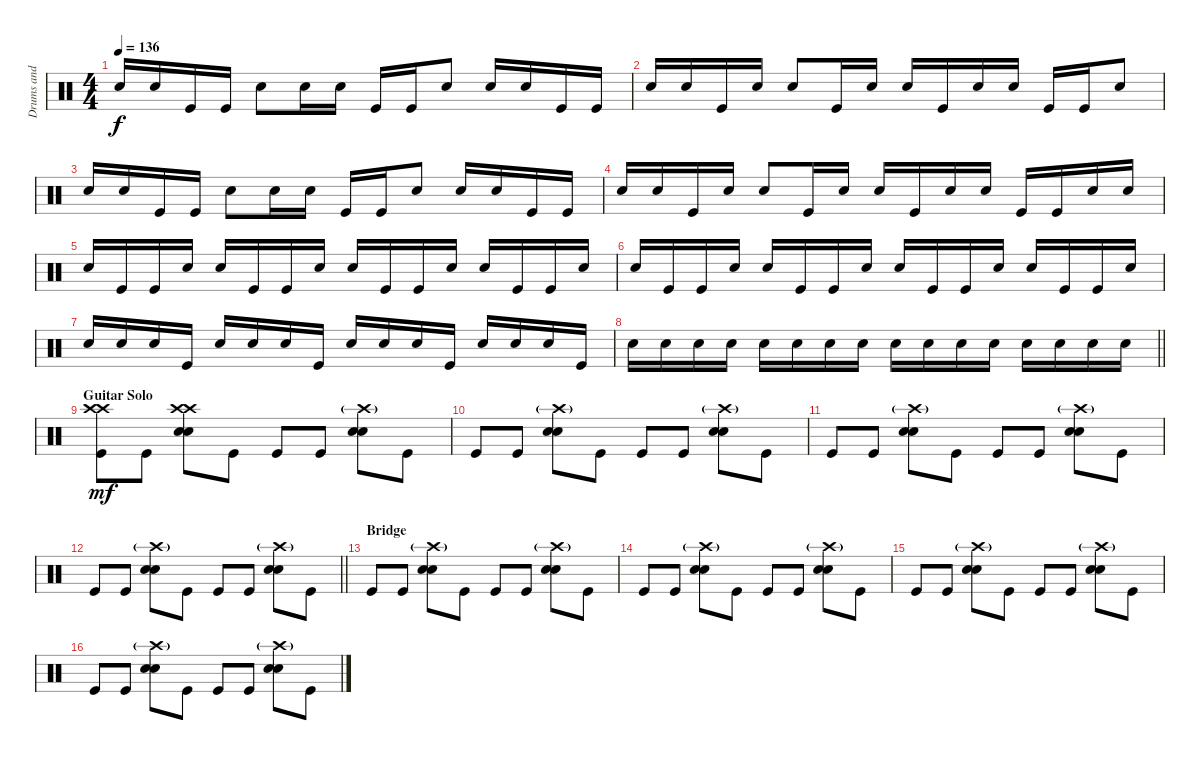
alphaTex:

\track ("Drums and Percussions" "Drums and ") {instrument percussion}
\staff {score}
\articulation defaults
\ts (4 4)
\tempo 136
\clef neutral
\ks c "Electric Snare (hit)".16{dy f} "Electric Snare (hit)".16 "Kick (hit)".16 "Kick (hit)".16 "Electric Snare (hit)".8 "Electric Snare (hit)".16 "Electric Snare (hit)".16 "Kick (hit)".16 "Kick (hit)".16 "Electric Snare (hit)".8 "Electric Snare (hit)".16 "Electric Snare (hit)".16 "Kick (hit)".16 "Kick (hit)".16
|
"Electric Snare (hit)".16 "Electric Snare (hit)".16 "Kick (hit)".16 "Electric Snare (hit)".16 "Electric Snare (hit)".8 "Kick (hit)".16 "Electric Snare (hit)".16 "Electric Snare (hit)".16 "Kick (hit)".16 "Electric Snare (hit)".16 "Electric Snare (hit)".16 "Kick (hit)".16 "Kick (hit)".16 "Electric Snare (hit)".8 |
"Electric Snare (hit)".16 "Electric Snare (hit)".16 "Kick (hit)".16 "Kick (hit)".16 "Electric Snare (hit)".8 "Electric Snare (hit)".16 "Electric Snare (hit)".16 "Kick (hit)".16 "Kick (hit)".16 "Electric Snare (hit)".8 "Electric Snare (hit)".16 "Electric Snare (hit)".16 "Kick (hit)".16 "Kick (hit)".16 |
"Electric Snare (hit)".16 "Electric Snare (hit)".16 "Kick (hit)".16 "Electric Snare (hit)".16 "Electric Snare (hit)".8 "Kick (hit)".16 "Electric Snare (hit)".16 "Electric Snare (hit)".16 "Kick (hit)".16 "Electric Snare (hit)".16 "Electric Snare (hit)".16 "Kick (hit)".16 "Kick (hit)".16 "Electric Snare (hit)".16 "Electric Snare (hit)".16 |
"Electric Snare (hit)".16 "Kick (hit)".16 "Kick (hit)".16 "Electric Snare (hit)".16 "Electric Snare (hit)".16 "Kick (hit)".16 "Kick (hit)".16 "Electric Snare (hit)".16 "Electric Snare (hit)".16 "Kick (hit)".16 "Kick (hit)".16 "Electric Snare (hit)".16 "Electric Snare (hit)".16 "Kick (hit)".16 "Kick (hit)".16 "Electric Snare (hit)".16 |
"Electric Snare (hit)".16 "Kick (hit)".16 "Kick (hit)".16 "Electric Snare (hit)".16 "Electric Snare (hit)".16 "Kick (hit)".16 "Kick (hit)".16 "Electric Snare (hit)".16 "Electric Snare (hit)".16 "Kick (hit)".16 "Kick (hit)".16 "Electric Snare (hit)".16 "Electric Snare (hit)".16 "Kick (hit)".16 "Kick (hit)".16 "Electric Snare (hit)".16 |
"Electric Snare (hit)".16 "Electric Snare (hit)".16 "Electric Snare (hit)".16 "Kick (hit)".16 "Electric Snare (hit)".16 "Electric Snare (hit)".16 "Electric Snare (hit)".16 "Kick (hit)".16 "Electric Snare (hit)".16 "Electric Snare (hit)".16 "Electric Snare (hit)".16 "Kick (hit)".16 "Electric Snare (hit)".16 "Electric Snare (hit)".16 "Electric Snare (hit)".16 "Kick (hit)".16 |
\barLineRight lightlight "Electric Snare (hit)".16 "Electric Snare (hit)".16 "Electric Snare (hit)".16 "Electric Snare (hit)".16 "Electric Snare (hit)".16 "Electric Snare (hit)".16 "Electric Snare (hit)".16 "Electric Snare (hit)".16 "Electric Snare (hit)".16 "Electric Snare (hit)".16 "Electric Snare (hit)".16 "Electric Snare (hit)".16 "Electric Snare (hit)".16 "Electric Snare (hit)".16 "Electric Snare (hit)".16 "Electric Snare (hit)".16
|
\section ("" "Guitar Solo")
("Crash high (hit)" "Crash high (hit)" "Kick (hit)").8{dy mf} "Kick (hit)".8 ("Crash high (hit)" "Crash high (hit)" "Electric Snare (hit)" "Electric Snare (hit)").8 "Kick (hit)".8 "Kick (hit)".8 "Kick (hit)".8 ("Crash high (hit)"{g} "Electric Snare (hit)" "Electric Snare (hit)").8 "Kick (hit)".8 |
"Kick (hit)".8 "Kick (hit)".8 ("Crash high (hit)"{g} "Electric Snare (hit)" "Electric Snare (hit)").8 "Kick (hit)".8 "Kick (hit)".8 "Kick (hit)".8 ("Crash high (hit)"{g} "Electric Snare (hit)" "Electric Snare (hit)").8 "Kick (hit)".8 |
"Kick (hit)".8 "Kick (hit)".8 ("Crash high (hit)"{g} "Electric Snare (hit)" "Electric Snare (hit)").8 "Kick (hit)".8 "Kick (hit)".8 "Kick (hit)".8 ("Crash high (hit)"{g} "Electric Snare (hit)" "Electric Snare (hit)").8 "Kick (hit)".8 |
\barLineRight lightlight "Kick (hit)".8 "Kick (hit)".8
("Crash high (hit)"{g} "Electric Snare (hit)" "Electric Snare (hit)").8 "Kick (hit)".8 "Kick (hit)".8 "Kick (hit)".8 ("Crash high (hit)"{g} "Electric Snare (hit)" "Electric Snare (hit)").8 "Kick (hit)".8 |
\section ("" "Bridge")
"Kick (hit)".8 "Kick (hit)".8 ("Crash high (hit)"{g} "Electric Snare (hit)" "Electric Snare (hit)").8 "Kick (hit)".8 "Kick (hit)".8 "Kick (hit)".8 ("Crash high (hit)"{g} "Electric Snare (hit)" "Electric Snare (hit)").8 "Kick (hit)".8 |
"Kick (hit)".8 "Kick (hit)".8 ("Crash high (hit)"{g} "Electric Snare (hit)" "Electric Snare (hit)").8 "Kick (hit)".8 "Kick (hit)".8 "Kick (hit)".8 ("Crash high (hit)"{g} "Electric Snare (hit)" "Electric Snare (hit)").8 "Kick (hit)".8 |
"Kick (hit)".8 "Kick (hit)".8 ("Crash high (hit)"{g} "Electric Snare (hit)" "Electric Snare (hit)").8 "Kick (hit)".8 "Kick (hit)".8 "Kick (hit)".8 ("Crash high (hit)"{g} "Electric Snare (hit)" "Electric Snare (hit)").8 "Kick (hit)".8 |
"Kick (hit)".8 "Kick (hit)".8 ("Crash high (hit)"{g} "Electric Snare (hit)" "Electric Snare (hit)").8 "Kick (hit)".8 "Kick (hit)".8 "Kick (hit)".8 ("Crash high (hit)"{g} "Electric Snare (hit)" "Electric Snare (hit)").8 "Kick (hit)".8
